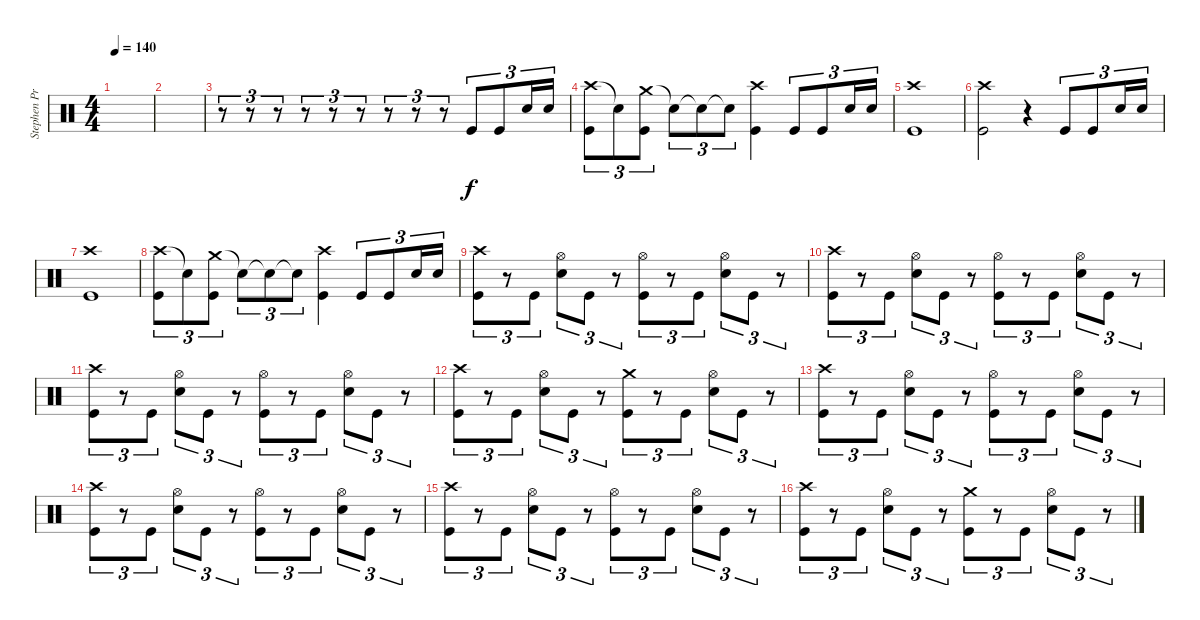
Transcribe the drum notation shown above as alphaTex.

\track ("Stephen Priestly-Drums" "Stephen Pr") {instrument percussion}
\staff {score}
\articulation defaults
\ts (4 4)
\tempo 140
\clef neutral
\ks c
|
|
r.8{tu (3 2)} r.8{tu (3 2)} r.8{tu (3 2)} r.8{tu (3 2)} r.8{tu (3 2)} r.8{tu (3 2)} r.8{tu (3 2)} r.8{tu (3 2)} r.8{tu (3 2)} "Kick (hit)".8{tu (3 2)} "Kick (hit)".8{tu (3 2)} "Snare (hit) 2".16{tu (3 2)} "Snare (hit) 2".16{tu (3 2)} |
("Crash high (hit)" "Kick (hit)").8{tu (3 2)} "Snare (hit)"{t}.8{tu (3 2)} ("Crash medium (hit)" "Kick (hit)").8{tu (3 2)} "Snare (hit)"{t}.8{tu (3 2)} "Snare (hit)"{t}.8{tu (3 2)} "Snare (hit)"{t}.8{tu (3 2)} ("Crash high (hit)" "Kick (hit)").4 "Kick (hit)".8{tu (3 2)} "Kick (hit)".8{tu (3 2)} "Snare (hit) 2".16{tu (3 2)} "Snare (hit) 2".16{tu (3 2)} |
("Crash high (hit)" "Kick (hit)").1 |
("Crash high (hit)" "Kick (hit)").2 r.4 "Kick (hit)".8{tu (3 2)} "Kick (hit)".8{tu (3 2)} "Snare (hit) 2".16{tu (3 2)} "Snare (hit) 2".16{tu (3 2)} |
("Crash high (hit)" "Kick (hit)").1 |
("Crash high (hit)" "Kick (hit)").8{tu (3 2)} "Snare (hit)"{t}.8{tu (3 2)} ("Crash medium (hit)" "Kick (hit)").8{tu (3 2)} "Snare (hit)"{t}.8{tu (3 2)} "Snare (hit)"{t}.8{tu (3 2)} "Snare (hit)"{t}.8{tu (3 2)} ("Crash high (hit)" "Kick (hit)").4 "Kick (hit)".8{tu (3 2)} "Kick (hit)".8{tu (3 2)} "Snare (hit) 2".16{tu (3 2)} "Snare (hit) 2".16{tu (3 2)} |
("Crash high (hit)" "Kick (hit)").8{tu (3 2)} r.8{tu (3 2)} "Kick (hit)".8{tu (3 2)} ("Hi-Hat (open)" "Snare (hit) 2").8{tu (3 2)} "Kick (hit)".8{tu (3 2)} r.8{tu (3 2)} ("Hi-Hat (open)" "Kick (hit)").8{tu (3 2)} r.8{tu (3 2)} "Kick (hit)".8{tu (3 2)} ("Hi-Hat (open)" "Snare (hit) 2").8{tu (3 2)} "Kick (hit)".8{tu (3 2)} r.8{tu (3 2)} |
("Crash high (hit)" "Kick (hit)").8{tu (3 2)} r.8{tu (3 2)} "Kick (hit)".8{tu (3 2)} ("Hi-Hat (open)" "Snare (hit) 2").8{tu (3 2)} "Kick (hit)".8{tu (3 2)} r.8{tu (3 2)} ("Hi-Hat (open)" "Kick (hit)").8{tu (3 2)} r.8{tu (3 2)} "Kick (hit)".8{tu (3 2)} ("Hi-Hat (open)" "Snare (hit) 2").8{tu (3 2)} "Kick (hit)".8{tu (3 2)} r.8{tu (3 2)} |
("Crash high (hit)" "Kick (hit)").8{tu (3 2)} r.8{tu (3 2)} "Kick (hit)".8{tu (3 2)} ("Hi-Hat (open)" "Snare (hit) 2").8{tu (3 2)} "Kick (hit)".8{tu (3 2)} r.8{tu (3 2)} ("Hi-Hat (open)" "Kick (hit)").8{tu (3 2)} r.8{tu (3 2)} "Kick (hit)".8{tu (3 2)} ("Hi-Hat (open)" "Snare (hit) 2").8{tu (3 2)} "Kick (hit)".8{tu (3 2)} r.8{tu (3 2)} |
("Crash high (hit)" "Kick (hit)").8{tu (3 2)} r.8{tu (3 2)} "Kick (hit)".8{tu (3 2)} ("Hi-Hat (open)" "Snare (hit) 2").8{tu (3 2)} "Kick (hit)".8{tu (3 2)} r.8{tu (3 2)} ("Crash medium (hit)" "Kick (hit)").8{tu (3 2)} r.8{tu (3 2)} "Kick (hit)".8{tu (3 2)} ("Hi-Hat (open)" "Snare (hit) 2").8{tu (3 2)} "Kick (hit)".8{tu (3 2)} r.8{tu (3 2)} |
("Crash high (hit)" "Kick (hit)").8{tu (3 2)} r.8{tu (3 2)} "Kick (hit)".8{tu (3 2)} ("Hi-Hat (open)" "Snare (hit) 2").8{tu (3 2)} "Kick (hit)".8{tu (3 2)} r.8{tu (3 2)} ("Hi-Hat (open)" "Kick (hit)").8{tu (3 2)} r.8{tu (3 2)} "Kick (hit)".8{tu (3 2)} ("Hi-Hat (open)" "Snare (hit) 2").8{tu (3 2)} "Kick (hit)".8{tu (3 2)} r.8{tu (3 2)} |
("Crash high (hit)" "Kick (hit)").8{tu (3 2)} r.8{tu (3 2)} "Kick (hit)".8{tu (3 2)} ("Hi-Hat (open)" "Snare (hit) 2").8{tu (3 2)} "Kick (hit)".8{tu (3 2)} r.8{tu (3 2)} ("Hi-Hat (open)" "Kick (hit)").8{tu (3 2)} r.8{tu (3 2)} "Kick (hit)".8{tu (3 2)} ("Hi-Hat (open)" "Snare (hit) 2").8{tu (3 2)} "Kick (hit)".8{tu (3 2)} r.8{tu (3 2)} |
("Crash high (hit)" "Kick (hit)").8{tu (3 2)} r.8{tu (3 2)} "Kick (hit)".8{tu (3 2)} ("Hi-Hat (open)" "Snare (hit) 2").8{tu (3 2)} "Kick (hit)".8{tu (3 2)} r.8{tu (3 2)} ("Hi-Hat (open)" "Kick (hit)").8{tu (3 2)} r.8{tu (3 2)} "Kick (hit)".8{tu (3 2)} ("Hi-Hat (open)" "Snare (hit) 2").8{tu (3 2)} "Kick (hit)".8{tu (3 2)} r.8{tu (3 2)} |
("Crash high (hit)" "Kick (hit)").8{tu (3 2)} r.8{tu (3 2)} "Kick (hit)".8{tu (3 2)} ("Hi-Hat (open)" "Snare (hit) 2").8{tu (3 2)} "Kick (hit)".8{tu (3 2)} r.8{tu (3 2)} ("Crash medium (hit)" "Kick (hit)").8{tu (3 2)} r.8{tu (3 2)} "Kick (hit)".8{tu (3 2)} ("Hi-Hat (open)" "Snare (hit) 2").8{tu (3 2)} "Kick (hit)".8{tu (3 2)} r.8{tu (3 2)}
